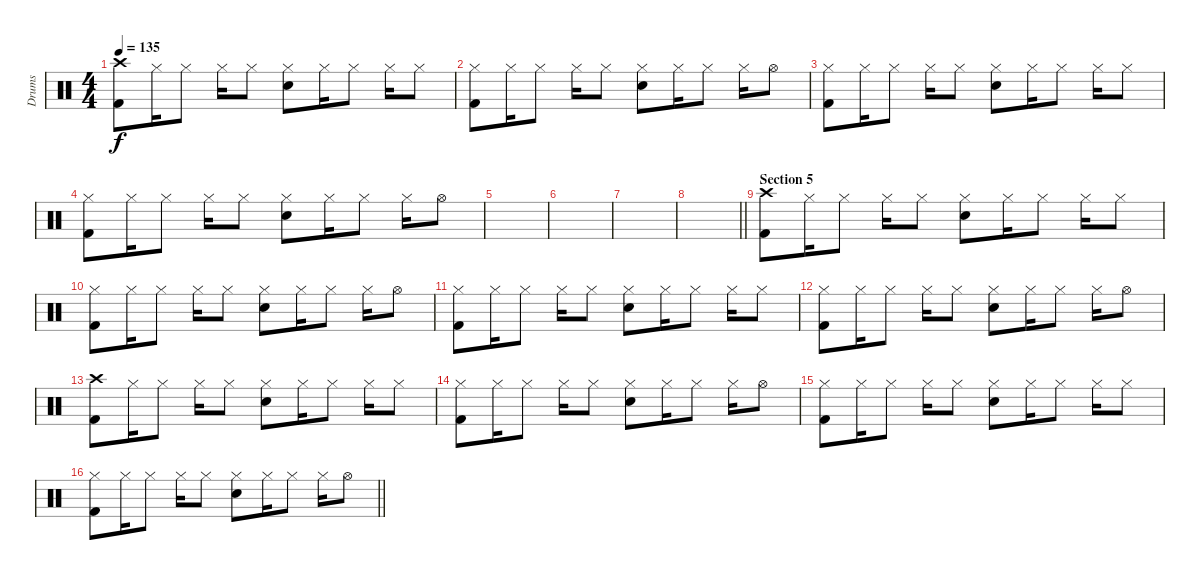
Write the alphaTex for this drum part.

\track ("Drums" "Drums") {instrument percussion}
\staff {score}
\articulation defaults
\ts (4 4)
\tempo 135
\clef neutral
\ks c
("Crash high (hit)" "Kick (hit) 2").8{dy f} "Hi-Hat (closed)".16 "Hi-Hat (closed)".8 "Hi-Hat (closed)".16 "Hi-Hat (closed)".8 ("Hi-Hat (closed)" "Electric Snare (hit)").8 "Hi-Hat (closed)".16 "Hi-Hat (closed)".8 "Hi-Hat (closed)".16 "Hi-Hat (closed)".8 |
("Hi-Hat (closed)" "Kick (hit) 2").8 "Hi-Hat (closed)".16 "Hi-Hat (closed)".8 "Hi-Hat (closed)".16 "Hi-Hat (closed)".8 ("Hi-Hat (closed)" "Electric Snare (hit)").8 "Hi-Hat (closed)".16 "Hi-Hat (closed)".8 "Hi-Hat (closed)".16 "Hi-Hat (open)".8 |
("Hi-Hat (closed)" "Kick (hit) 2").8 "Hi-Hat (closed)".16 "Hi-Hat (closed)".8 "Hi-Hat (closed)".16 "Hi-Hat (closed)".8 ("Hi-Hat (closed)" "Electric Snare (hit)").8 "Hi-Hat (closed)".16 "Hi-Hat (closed)".8 "Hi-Hat (closed)".16 "Hi-Hat (closed)".8 |
("Hi-Hat (closed)" "Kick (hit) 2").8 "Hi-Hat (closed)".16 "Hi-Hat (closed)".8 "Hi-Hat (closed)".16 "Hi-Hat (closed)".8 ("Hi-Hat (closed)" "Electric Snare (hit)").8 "Hi-Hat (closed)".16 "Hi-Hat (closed)".8 "Hi-Hat (closed)".16 "Hi-Hat (open)".8 |
|
|
|
\barLineRight lightlight
|
\section ("" "Section 5")
("Crash high (hit)" "Kick (hit) 2").8 "Hi-Hat (closed)".16 "Hi-Hat (closed)".8 "Hi-Hat (closed)".16 "Hi-Hat (closed)".8 ("Hi-Hat (closed)" "Electric Snare (hit)").8 "Hi-Hat (closed)".16 "Hi-Hat (closed)".8 "Hi-Hat (closed)".16 "Hi-Hat (closed)".8 |
("Hi-Hat (closed)" "Kick (hit) 2").8 "Hi-Hat (closed)".16 "Hi-Hat (closed)".8 "Hi-Hat (closed)".16 "Hi-Hat (closed)".8 ("Hi-Hat (closed)" "Electric Snare (hit)").8 "Hi-Hat (closed)".16 "Hi-Hat (closed)".8 "Hi-Hat (closed)".16 "Hi-Hat (open)".8 |
("Hi-Hat (closed)" "Kick (hit) 2").8 "Hi-Hat (closed)".16 "Hi-Hat (closed)".8 "Hi-Hat (closed)".16 "Hi-Hat (closed)".8 ("Hi-Hat (closed)" "Electric Snare (hit)").8 "Hi-Hat (closed)".16 "Hi-Hat (closed)".8 "Hi-Hat (closed)".16 "Hi-Hat (closed)".8 |
("Hi-Hat (closed)" "Kick (hit) 2").8 "Hi-Hat (closed)".16 "Hi-Hat (closed)".8 "Hi-Hat (closed)".16 "Hi-Hat (closed)".8 ("Hi-Hat (closed)" "Electric Snare (hit)").8 "Hi-Hat (closed)".16 "Hi-Hat (closed)".8 "Hi-Hat (closed)".16 "Hi-Hat (open)".8 |
("Crash high (hit)" "Kick (hit) 2").8 "Hi-Hat (closed)".16 "Hi-Hat (closed)".8 "Hi-Hat (closed)".16 "Hi-Hat (closed)".8 ("Hi-Hat (closed)" "Electric Snare (hit)").8 "Hi-Hat (closed)".16 "Hi-Hat (closed)".8 "Hi-Hat (closed)".16 "Hi-Hat (closed)".8 |
("Hi-Hat (closed)" "Kick (hit) 2").8 "Hi-Hat (closed)".16 "Hi-Hat (closed)".8 "Hi-Hat (closed)".16 "Hi-Hat (closed)".8 ("Hi-Hat (closed)" "Electric Snare (hit)").8 "Hi-Hat (closed)".16 "Hi-Hat (closed)".8 "Hi-Hat (closed)".16 "Hi-Hat (open)".8 |
("Hi-Hat (closed)" "Kick (hit) 2").8 "Hi-Hat (closed)".16 "Hi-Hat (closed)".8 "Hi-Hat (closed)".16 "Hi-Hat (closed)".8 ("Hi-Hat (closed)" "Electric Snare (hit)").8 "Hi-Hat (closed)".16 "Hi-Hat (closed)".8 "Hi-Hat (closed)".16 "Hi-Hat (closed)".8 |
\barLineRight lightlight
("Hi-Hat (closed)" "Kick (hit) 2").8 "Hi-Hat (closed)".16 "Hi-Hat (closed)".8 "Hi-Hat (closed)".16 "Hi-Hat (closed)".8 ("Hi-Hat (closed)" "Electric Snare (hit)").8 "Hi-Hat (closed)".16 "Hi-Hat (closed)".8 "Hi-Hat (closed)".16 "Hi-Hat (open)".8
